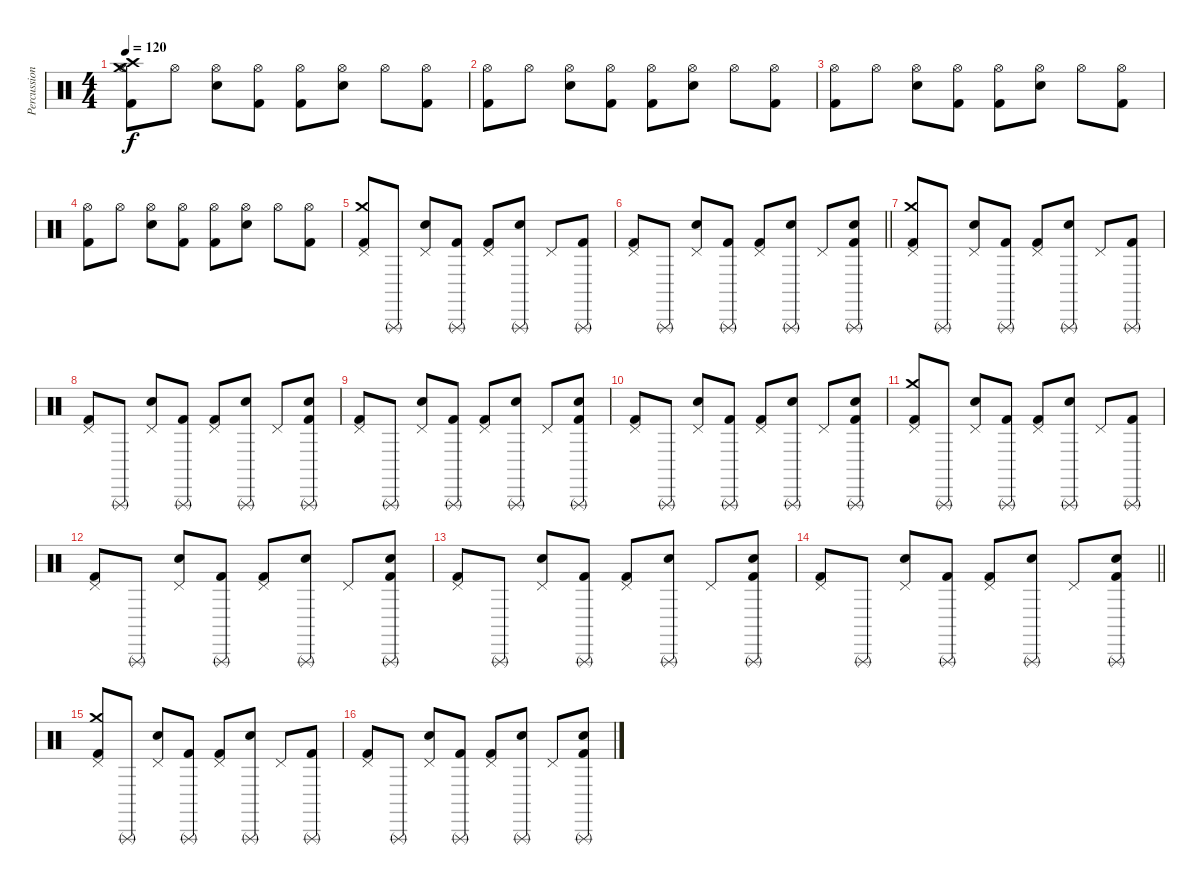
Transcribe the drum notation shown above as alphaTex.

\track ("Percussion" "Percussion") {instrument percussion}
\staff {score}
\articulation defaults
\ts (4 4)
\tempo 120
\clef neutral
\ks c
("Crash medium (hit)" "Crash high (hit)" "Hi-Hat (open)" "Kick (hit) 2").8{dy f} "Hi-Hat (open)".8 ("Hi-Hat (open)" "Snare (hit) 2").8 ("Hi-Hat (open)" "Kick (hit) 2").8 ("Hi-Hat (open)" "Kick (hit) 2").8 ("Hi-Hat (open)" "Snare (hit) 2").8 "Hi-Hat (open)".8 ("Hi-Hat (open)" "Kick (hit) 2").8 |
("Hi-Hat (open)" "Kick (hit) 2").8 "Hi-Hat (open)".8 ("Hi-Hat (open)" "Snare (hit) 2").8 ("Hi-Hat (open)" "Kick (hit) 2").8 ("Hi-Hat (open)" "Kick (hit) 2").8 ("Hi-Hat (open)" "Snare (hit) 2").8 "Hi-Hat (open)".8 ("Hi-Hat (open)" "Kick (hit) 2").8 |
("Hi-Hat (open)" "Kick (hit) 2").8 "Hi-Hat (open)".8 ("Hi-Hat (open)" "Snare (hit) 2").8 ("Hi-Hat (open)" "Kick (hit) 2").8 ("Hi-Hat (open)" "Kick (hit) 2").8 ("Hi-Hat (open)" "Snare (hit) 2").8 "Hi-Hat (open)".8 ("Hi-Hat (open)" "Kick (hit) 2").8 |
("Hi-Hat (open)" "Kick (hit) 2").8 "Hi-Hat (open)".8 ("Hi-Hat (open)" "Snare (hit) 2").8 ("Hi-Hat (open)" "Kick (hit) 2").8 ("Hi-Hat (open)" "Kick (hit) 2").8 ("Hi-Hat (open)" "Snare (hit) 2").8 "Hi-Hat (open)".8 ("Hi-Hat (open)" "Kick (hit) 2").8 |
("Crash medium (hit)" "Pedal Hi-Hat (hit)" "Kick (hit) 2").8 "Triangle (rnute)".8 ("Pedal Hi-Hat (hit)" "Snare (hit) 2").8 ("Triangle (rnute)" "Kick (hit) 2").8 ("Pedal Hi-Hat (hit)" "Kick (hit) 2").8 ("Triangle (rnute)" "Snare (hit) 2").8 "Pedal Hi-Hat (hit)".8 ("Triangle (rnute)" "Kick (hit) 2").8 |
\barLineRight lightlight
("Pedal Hi-Hat (hit)" "Kick (hit) 2").8 "Triangle (rnute)".8 ("Pedal Hi-Hat (hit)" "Snare (hit) 2").8 ("Triangle (rnute)" "Kick (hit) 2").8 ("Pedal Hi-Hat (hit)" "Kick (hit) 2").8 ("Triangle (rnute)" "Snare (hit) 2").8 "Pedal Hi-Hat (hit)".8 ("Triangle (rnute)" "Snare (hit) 2" "Kick (hit) 2").8 |
("Crash medium (hit)" "Pedal Hi-Hat (hit)" "Kick (hit) 2").8 "Triangle (rnute)".8 ("Pedal Hi-Hat (hit)" "Snare (hit) 2").8 ("Triangle (rnute)" "Kick (hit) 2").8 ("Pedal Hi-Hat (hit)" "Kick (hit) 2").8 ("Triangle (rnute)" "Snare (hit) 2").8 "Pedal Hi-Hat (hit)".8 ("Triangle (rnute)" "Kick (hit) 2").8 |
("Pedal Hi-Hat (hit)" "Kick (hit) 2").8 "Triangle (rnute)".8 ("Pedal Hi-Hat (hit)" "Snare (hit) 2").8 ("Triangle (rnute)" "Kick (hit) 2").8 ("Pedal Hi-Hat (hit)" "Kick (hit) 2").8 ("Triangle (rnute)" "Snare (hit) 2").8 "Pedal Hi-Hat (hit)".8 ("Triangle (rnute)" "Snare (hit) 2" "Kick (hit) 2").8 |
("Pedal Hi-Hat (hit)" "Kick (hit) 2").8 "Triangle (rnute)".8 ("Pedal Hi-Hat (hit)" "Snare (hit) 2").8 ("Triangle (rnute)" "Kick (hit) 2").8 ("Pedal Hi-Hat (hit)" "Kick (hit) 2").8 ("Triangle (rnute)" "Snare (hit) 2").8 "Pedal Hi-Hat (hit)".8 ("Triangle (rnute)" "Snare (hit) 2" "Kick (hit) 2").8 |
("Pedal Hi-Hat (hit)" "Kick (hit) 2").8 "Triangle (rnute)".8 ("Pedal Hi-Hat (hit)" "Snare (hit) 2").8 ("Triangle (rnute)" "Kick (hit) 2").8 ("Pedal Hi-Hat (hit)" "Kick (hit) 2").8 ("Triangle (rnute)" "Snare (hit) 2").8 "Pedal Hi-Hat (hit)".8 ("Triangle (rnute)" "Snare (hit) 2" "Kick (hit) 2").8 |
("Crash medium (hit)" "Pedal Hi-Hat (hit)" "Kick (hit) 2").8 "Triangle (rnute)".8 ("Pedal Hi-Hat (hit)" "Snare (hit) 2").8 ("Triangle (rnute)" "Kick (hit) 2").8 ("Pedal Hi-Hat (hit)" "Kick (hit) 2").8 ("Triangle (rnute)" "Snare (hit) 2").8 "Pedal Hi-Hat (hit)".8 ("Triangle (rnute)" "Kick (hit) 2").8 |
("Pedal Hi-Hat (hit)" "Kick (hit) 2").8 "Triangle (rnute)".8 ("Pedal Hi-Hat (hit)" "Snare (hit) 2").8 ("Triangle (rnute)" "Kick (hit) 2").8 ("Pedal Hi-Hat (hit)" "Kick (hit) 2").8 ("Triangle (rnute)" "Snare (hit) 2").8 "Pedal Hi-Hat (hit)".8 ("Triangle (rnute)" "Snare (hit) 2" "Kick (hit) 2").8 |
("Pedal Hi-Hat (hit)" "Kick (hit) 2").8 "Triangle (rnute)".8 ("Pedal Hi-Hat (hit)" "Snare (hit) 2").8 ("Triangle (rnute)" "Kick (hit) 2").8 ("Pedal Hi-Hat (hit)" "Kick (hit) 2").8 ("Triangle (rnute)" "Snare (hit) 2").8 "Pedal Hi-Hat (hit)".8 ("Triangle (rnute)" "Snare (hit) 2" "Kick (hit) 2").8 |
\barLineRight lightlight
("Pedal Hi-Hat (hit)" "Kick (hit) 2").8 "Triangle (rnute)".8 ("Pedal Hi-Hat (hit)" "Snare (hit) 2").8 ("Triangle (rnute)" "Kick (hit) 2").8 ("Pedal Hi-Hat (hit)" "Kick (hit) 2").8 ("Triangle (rnute)" "Snare (hit) 2").8 "Pedal Hi-Hat (hit)".8 ("Triangle (rnute)" "Snare (hit) 2" "Kick (hit) 2").8 |
("Crash medium (hit)" "Pedal Hi-Hat (hit)" "Kick (hit) 2").8 "Triangle (rnute)".8 ("Pedal Hi-Hat (hit)" "Snare (hit) 2").8 ("Triangle (rnute)" "Kick (hit) 2").8 ("Pedal Hi-Hat (hit)" "Kick (hit) 2").8 ("Triangle (rnute)" "Snare (hit) 2").8 "Pedal Hi-Hat (hit)".8 ("Triangle (rnute)" "Kick (hit) 2").8 |
("Pedal Hi-Hat (hit)" "Kick (hit) 2").8 "Triangle (rnute)".8 ("Pedal Hi-Hat (hit)" "Snare (hit) 2").8 ("Triangle (rnute)" "Kick (hit) 2").8 ("Pedal Hi-Hat (hit)" "Kick (hit) 2").8 ("Triangle (rnute)" "Snare (hit) 2").8 "Pedal Hi-Hat (hit)".8 ("Triangle (rnute)" "Snare (hit) 2" "Kick (hit) 2").8
